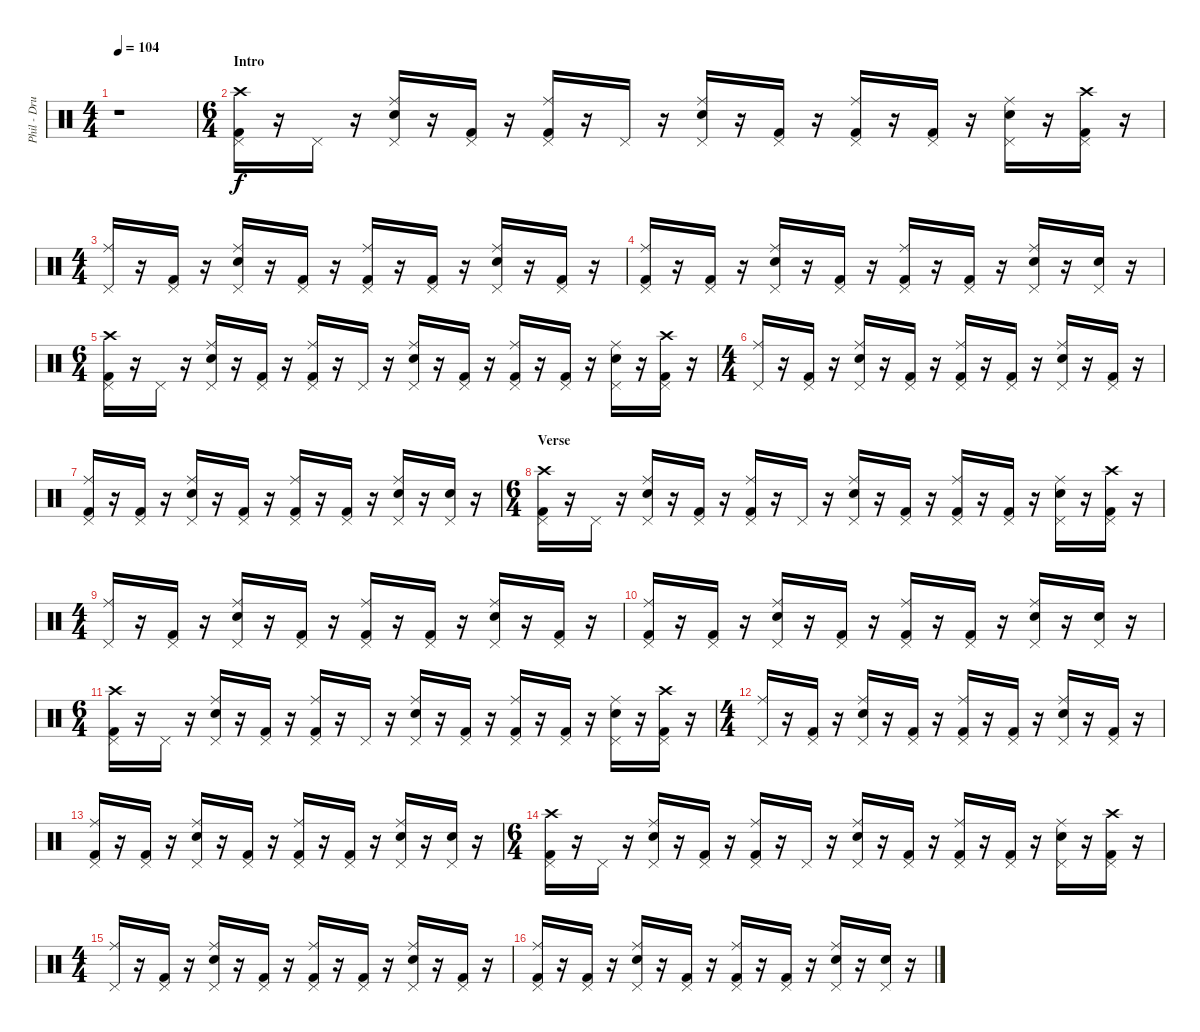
\track ("Phil - Drums" "Phil - Dru") {instrument percussion}
\staff {score}
\articulation defaults
\ts (4 4)
\tempo 104
\clef neutral
\ks c
r.1{dy f} |
\ts (6 4)
\section ("" "Intro")
("Crash high (hit)" "Kick (hit) 2" "Pedal Hi-Hat (hit)").16 r.16 "Pedal Hi-Hat (hit)".16 r.16 ("Ride (middle)" "Snare (hit) 2" "Pedal Hi-Hat (hit)").16 r.16 ("Kick (hit) 2" "Pedal Hi-Hat (hit)").16 r.16 ("Ride (middle)" "Kick (hit) 2" "Pedal Hi-Hat (hit)").16 r.16 "Pedal Hi-Hat (hit)".16 r.16 ("Ride (middle)" "Snare (hit) 2" "Pedal Hi-Hat (hit)").16 r.16 ("Kick (hit) 2" "Pedal Hi-Hat (hit)").16 r.16 ("Ride (middle)" "Kick (hit) 2" "Pedal Hi-Hat (hit)").16 r.16 ("Kick (hit) 2" "Pedal Hi-Hat (hit)").16 r.16 ("Ride (middle)" "Snare (hit) 2" "Pedal Hi-Hat (hit)").16 r.16 ("Crash high (hit)" "Kick (hit) 2" "Pedal Hi-Hat (hit)").16 r.16 |
\ts (4 4)
("Ride (middle)" "Pedal Hi-Hat (hit)").16 r.16 ("Kick (hit) 2" "Pedal Hi-Hat (hit)").16 r.16 ("Ride (middle)" "Snare (hit) 2" "Pedal Hi-Hat (hit)").16 r.16 ("Kick (hit) 2" "Pedal Hi-Hat (hit)").16 r.16 ("Ride (middle)" "Kick (hit) 2" "Pedal Hi-Hat (hit)").16 r.16 ("Kick (hit) 2" "Pedal Hi-Hat (hit)").16 r.16 ("Ride (middle)" "Snare (hit) 2" "Pedal Hi-Hat (hit)").16 r.16 ("Kick (hit) 2" "Pedal Hi-Hat (hit)").16 r.16 |
("Ride (middle)" "Kick (hit) 2" "Pedal Hi-Hat (hit)").16 r.16 ("Kick (hit) 2" "Pedal Hi-Hat (hit)").16 r.16 ("Ride (middle)" "Snare (hit) 2" "Pedal Hi-Hat (hit)").16 r.16 ("Kick (hit) 2" "Pedal Hi-Hat (hit)").16 r.16 ("Ride (middle)" "Kick (hit) 2" "Pedal Hi-Hat (hit)").16 r.16 ("Kick (hit) 2" "Pedal Hi-Hat (hit)").16 r.16 ("Ride (middle)" "Snare (hit) 2" "Pedal Hi-Hat (hit)").16 r.16 ("Snare (hit) 2" "Pedal Hi-Hat (hit)").16 r.16 |
\ts (6 4)
("Crash high (hit)" "Kick (hit) 2" "Pedal Hi-Hat (hit)").16 r.16 "Pedal Hi-Hat (hit)".16 r.16 ("Ride (middle)" "Snare (hit) 2" "Pedal Hi-Hat (hit)").16 r.16 ("Kick (hit) 2" "Pedal Hi-Hat (hit)").16 r.16 ("Ride (middle)" "Kick (hit) 2" "Pedal Hi-Hat (hit)").16 r.16 "Pedal Hi-Hat (hit)".16 r.16 ("Ride (middle)" "Snare (hit) 2" "Pedal Hi-Hat (hit)").16 r.16 ("Kick (hit) 2" "Pedal Hi-Hat (hit)").16 r.16 ("Ride (middle)" "Kick (hit) 2" "Pedal Hi-Hat (hit)").16 r.16 ("Kick (hit) 2" "Pedal Hi-Hat (hit)").16 r.16 ("Ride (middle)" "Snare (hit) 2" "Pedal Hi-Hat (hit)").16 r.16 ("Crash high (hit)" "Kick (hit) 2" "Pedal Hi-Hat (hit)").16 r.16 |
\ts (4 4)
("Ride (middle)" "Pedal Hi-Hat (hit)").16 r.16 ("Kick (hit) 2" "Pedal Hi-Hat (hit)").16 r.16 ("Ride (middle)" "Snare (hit) 2" "Pedal Hi-Hat (hit)").16 r.16 ("Kick (hit) 2" "Pedal Hi-Hat (hit)").16 r.16 ("Ride (middle)" "Kick (hit) 2" "Pedal Hi-Hat (hit)").16 r.16 ("Kick (hit) 2" "Pedal Hi-Hat (hit)").16 r.16 ("Ride (middle)" "Snare (hit) 2" "Pedal Hi-Hat (hit)").16 r.16 ("Kick (hit) 2" "Pedal Hi-Hat (hit)").16 r.16 |
("Ride (middle)" "Kick (hit) 2" "Pedal Hi-Hat (hit)").16 r.16 ("Kick (hit) 2" "Pedal Hi-Hat (hit)").16 r.16 ("Ride (middle)" "Snare (hit) 2" "Pedal Hi-Hat (hit)").16 r.16 ("Kick (hit) 2" "Pedal Hi-Hat (hit)").16 r.16 ("Ride (middle)" "Kick (hit) 2" "Pedal Hi-Hat (hit)").16 r.16 ("Kick (hit) 2" "Pedal Hi-Hat (hit)").16 r.16 ("Ride (middle)" "Snare (hit) 2" "Pedal Hi-Hat (hit)").16 r.16 ("Snare (hit) 2" "Pedal Hi-Hat (hit)").16 r.16 |
\ts (6 4)
\section ("" "Verse")
("Crash high (hit)" "Kick (hit) 2" "Pedal Hi-Hat (hit)").16 r.16 "Pedal Hi-Hat (hit)".16 r.16 ("Ride (middle)" "Snare (hit) 2" "Pedal Hi-Hat (hit)").16 r.16 ("Kick (hit) 2" "Pedal Hi-Hat (hit)").16 r.16 ("Ride (middle)" "Kick (hit) 2" "Pedal Hi-Hat (hit)").16 r.16 "Pedal Hi-Hat (hit)".16 r.16 ("Ride (middle)" "Snare (hit) 2" "Pedal Hi-Hat (hit)").16 r.16 ("Kick (hit) 2" "Pedal Hi-Hat (hit)").16 r.16 ("Ride (middle)" "Kick (hit) 2" "Pedal Hi-Hat (hit)").16 r.16 ("Kick (hit) 2" "Pedal Hi-Hat (hit)").16 r.16 ("Ride (middle)" "Snare (hit) 2" "Pedal Hi-Hat (hit)").16 r.16 ("Crash high (hit)" "Kick (hit) 2" "Pedal Hi-Hat (hit)").16 r.16 |
\ts (4 4)
("Ride (middle)" "Pedal Hi-Hat (hit)").16 r.16 ("Kick (hit) 2" "Pedal Hi-Hat (hit)").16 r.16 ("Ride (middle)" "Snare (hit) 2" "Pedal Hi-Hat (hit)").16 r.16 ("Kick (hit) 2" "Pedal Hi-Hat (hit)").16 r.16 ("Ride (middle)" "Kick (hit) 2" "Pedal Hi-Hat (hit)").16 r.16 ("Kick (hit) 2" "Pedal Hi-Hat (hit)").16 r.16 ("Ride (middle)" "Snare (hit) 2" "Pedal Hi-Hat (hit)").16 r.16 ("Kick (hit) 2" "Pedal Hi-Hat (hit)").16 r.16 |
("Ride (middle)" "Kick (hit) 2" "Pedal Hi-Hat (hit)").16 r.16 ("Kick (hit) 2" "Pedal Hi-Hat (hit)").16 r.16 ("Ride (middle)" "Snare (hit) 2" "Pedal Hi-Hat (hit)").16 r.16 ("Kick (hit) 2" "Pedal Hi-Hat (hit)").16 r.16 ("Ride (middle)" "Kick (hit) 2" "Pedal Hi-Hat (hit)").16 r.16 ("Kick (hit) 2" "Pedal Hi-Hat (hit)").16 r.16 ("Ride (middle)" "Snare (hit) 2" "Pedal Hi-Hat (hit)").16 r.16 ("Snare (hit) 2" "Pedal Hi-Hat (hit)").16 r.16 |
\ts (6 4)
("Crash high (hit)" "Kick (hit) 2" "Pedal Hi-Hat (hit)").16 r.16 "Pedal Hi-Hat (hit)".16 r.16 ("Ride (middle)" "Snare (hit) 2" "Pedal Hi-Hat (hit)").16 r.16 ("Kick (hit) 2" "Pedal Hi-Hat (hit)").16 r.16 ("Ride (middle)" "Kick (hit) 2" "Pedal Hi-Hat (hit)").16 r.16 "Pedal Hi-Hat (hit)".16 r.16 ("Ride (middle)" "Snare (hit) 2" "Pedal Hi-Hat (hit)").16 r.16 ("Kick (hit) 2" "Pedal Hi-Hat (hit)").16 r.16 ("Ride (middle)" "Kick (hit) 2" "Pedal Hi-Hat (hit)").16 r.16 ("Kick (hit) 2" "Pedal Hi-Hat (hit)").16 r.16 ("Ride (middle)" "Snare (hit) 2" "Pedal Hi-Hat (hit)").16 r.16 ("Crash high (hit)" "Kick (hit) 2" "Pedal Hi-Hat (hit)").16 r.16 |
\ts (4 4)
("Ride (middle)" "Pedal Hi-Hat (hit)").16 r.16 ("Kick (hit) 2" "Pedal Hi-Hat (hit)").16 r.16 ("Ride (middle)" "Snare (hit) 2" "Pedal Hi-Hat (hit)").16 r.16 ("Kick (hit) 2" "Pedal Hi-Hat (hit)").16 r.16 ("Ride (middle)" "Kick (hit) 2" "Pedal Hi-Hat (hit)").16 r.16 ("Kick (hit) 2" "Pedal Hi-Hat (hit)").16 r.16 ("Ride (middle)" "Snare (hit) 2" "Pedal Hi-Hat (hit)").16 r.16 ("Kick (hit) 2" "Pedal Hi-Hat (hit)").16 r.16 |
("Ride (middle)" "Kick (hit) 2" "Pedal Hi-Hat (hit)").16 r.16 ("Kick (hit) 2" "Pedal Hi-Hat (hit)").16 r.16 ("Ride (middle)" "Snare (hit) 2" "Pedal Hi-Hat (hit)").16 r.16 ("Kick (hit) 2" "Pedal Hi-Hat (hit)").16 r.16 ("Ride (middle)" "Kick (hit) 2" "Pedal Hi-Hat (hit)").16 r.16 ("Kick (hit) 2" "Pedal Hi-Hat (hit)").16 r.16 ("Ride (middle)" "Snare (hit) 2" "Pedal Hi-Hat (hit)").16 r.16 ("Snare (hit) 2" "Pedal Hi-Hat (hit)").16 r.16 |
\ts (6 4)
("Crash high (hit)" "Kick (hit) 2" "Pedal Hi-Hat (hit)").16 r.16 "Pedal Hi-Hat (hit)".16 r.16 ("Ride (middle)" "Snare (hit) 2" "Pedal Hi-Hat (hit)").16 r.16 ("Kick (hit) 2" "Pedal Hi-Hat (hit)").16 r.16 ("Ride (middle)" "Kick (hit) 2" "Pedal Hi-Hat (hit)").16 r.16 "Pedal Hi-Hat (hit)".16 r.16 ("Ride (middle)" "Snare (hit) 2" "Pedal Hi-Hat (hit)").16 r.16 ("Kick (hit) 2" "Pedal Hi-Hat (hit)").16 r.16 ("Ride (middle)" "Kick (hit) 2" "Pedal Hi-Hat (hit)").16 r.16 ("Kick (hit) 2" "Pedal Hi-Hat (hit)").16 r.16 ("Ride (middle)" "Snare (hit) 2" "Pedal Hi-Hat (hit)").16 r.16 ("Crash high (hit)" "Kick (hit) 2" "Pedal Hi-Hat (hit)").16 r.16 |
\ts (4 4)
("Ride (middle)" "Pedal Hi-Hat (hit)").16 r.16 ("Kick (hit) 2" "Pedal Hi-Hat (hit)").16 r.16 ("Ride (middle)" "Snare (hit) 2" "Pedal Hi-Hat (hit)").16 r.16 ("Kick (hit) 2" "Pedal Hi-Hat (hit)").16 r.16 ("Ride (middle)" "Kick (hit) 2" "Pedal Hi-Hat (hit)").16 r.16 ("Kick (hit) 2" "Pedal Hi-Hat (hit)").16 r.16 ("Ride (middle)" "Snare (hit) 2" "Pedal Hi-Hat (hit)").16 r.16 ("Kick (hit) 2" "Pedal Hi-Hat (hit)").16 r.16 |
("Ride (middle)" "Kick (hit) 2" "Pedal Hi-Hat (hit)").16 r.16 ("Kick (hit) 2" "Pedal Hi-Hat (hit)").16 r.16 ("Ride (middle)" "Snare (hit) 2" "Pedal Hi-Hat (hit)").16 r.16 ("Kick (hit) 2" "Pedal Hi-Hat (hit)").16 r.16 ("Ride (middle)" "Kick (hit) 2" "Pedal Hi-Hat (hit)").16 r.16 ("Kick (hit) 2" "Pedal Hi-Hat (hit)").16 r.16 ("Ride (middle)" "Snare (hit) 2" "Pedal Hi-Hat (hit)").16 r.16 ("Snare (hit) 2" "Pedal Hi-Hat (hit)").16 r.16
